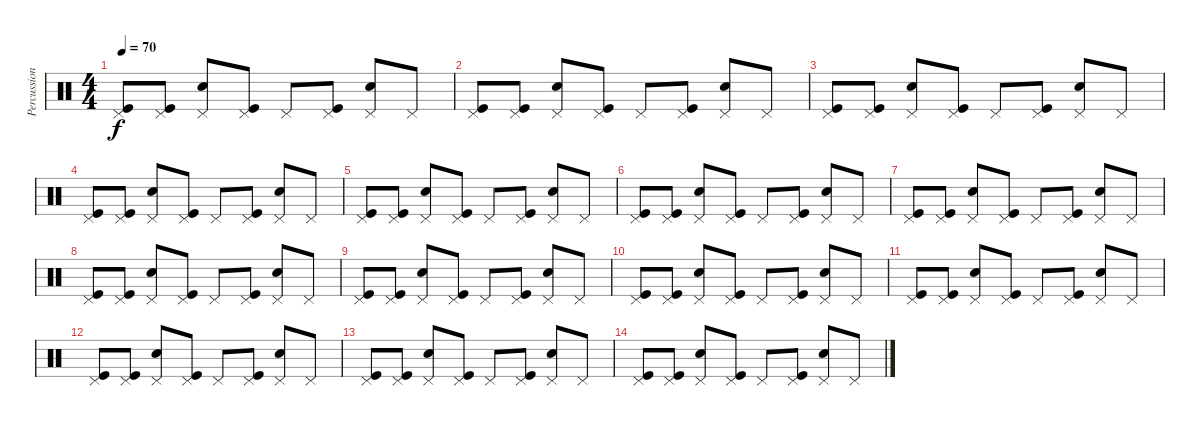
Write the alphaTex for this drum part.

\track ("Percussion" "Percussion") {instrument percussion}
\staff {score}
\articulation defaults
\ts (4 4)
\tempo 70
\clef neutral
\ks c
("Pedal Hi-Hat (hit)" "Kick (hit)").8{dy f} ("Pedal Hi-Hat (hit)" "Kick (hit)").8 ("Pedal Hi-Hat (hit)" "Snare (hit) 2").8 ("Pedal Hi-Hat (hit)" "Kick (hit)").8 "Pedal Hi-Hat (hit)".8 ("Pedal Hi-Hat (hit)" "Kick (hit)").8 ("Pedal Hi-Hat (hit)" "Snare (hit) 2").8 "Pedal Hi-Hat (hit)".8 |
("Pedal Hi-Hat (hit)" "Kick (hit)").8 ("Pedal Hi-Hat (hit)" "Kick (hit)").8 ("Pedal Hi-Hat (hit)" "Snare (hit) 2").8 ("Pedal Hi-Hat (hit)" "Kick (hit)").8 "Pedal Hi-Hat (hit)".8 ("Pedal Hi-Hat (hit)" "Kick (hit)").8 ("Pedal Hi-Hat (hit)" "Snare (hit) 2").8 "Pedal Hi-Hat (hit)".8 |
("Pedal Hi-Hat (hit)" "Kick (hit)").8 ("Pedal Hi-Hat (hit)" "Kick (hit)").8 ("Pedal Hi-Hat (hit)" "Snare (hit) 2").8 ("Pedal Hi-Hat (hit)" "Kick (hit)").8 "Pedal Hi-Hat (hit)".8 ("Pedal Hi-Hat (hit)" "Kick (hit)").8 ("Pedal Hi-Hat (hit)" "Snare (hit) 2").8 "Pedal Hi-Hat (hit)".8 |
("Pedal Hi-Hat (hit)" "Kick (hit)").8 ("Pedal Hi-Hat (hit)" "Kick (hit)").8 ("Pedal Hi-Hat (hit)" "Snare (hit) 2").8 ("Pedal Hi-Hat (hit)" "Kick (hit)").8 "Pedal Hi-Hat (hit)".8 ("Pedal Hi-Hat (hit)" "Kick (hit)").8 ("Pedal Hi-Hat (hit)" "Snare (hit) 2").8 "Pedal Hi-Hat (hit)".8 |
("Pedal Hi-Hat (hit)" "Kick (hit)").8 ("Pedal Hi-Hat (hit)" "Kick (hit)").8 ("Pedal Hi-Hat (hit)" "Snare (hit) 2").8 ("Pedal Hi-Hat (hit)" "Kick (hit)").8 "Pedal Hi-Hat (hit)".8 ("Pedal Hi-Hat (hit)" "Kick (hit)").8 ("Pedal Hi-Hat (hit)" "Snare (hit) 2").8 "Pedal Hi-Hat (hit)".8 |
("Pedal Hi-Hat (hit)" "Kick (hit)").8 ("Pedal Hi-Hat (hit)" "Kick (hit)").8 ("Pedal Hi-Hat (hit)" "Snare (hit) 2").8 ("Pedal Hi-Hat (hit)" "Kick (hit)").8 "Pedal Hi-Hat (hit)".8 ("Pedal Hi-Hat (hit)" "Kick (hit)").8 ("Pedal Hi-Hat (hit)" "Snare (hit) 2").8 "Pedal Hi-Hat (hit)".8 |
("Pedal Hi-Hat (hit)" "Kick (hit)").8 ("Pedal Hi-Hat (hit)" "Kick (hit)").8 ("Pedal Hi-Hat (hit)" "Snare (hit) 2").8{txt ""} ("Pedal Hi-Hat (hit)" "Kick (hit)").8 "Pedal Hi-Hat (hit)".8 ("Pedal Hi-Hat (hit)" "Kick (hit)").8 ("Pedal Hi-Hat (hit)" "Snare (hit) 2").8 "Pedal Hi-Hat (hit)".8 |
("Pedal Hi-Hat (hit)" "Kick (hit)").8 ("Pedal Hi-Hat (hit)" "Kick (hit)").8 ("Pedal Hi-Hat (hit)" "Snare (hit) 2").8 ("Pedal Hi-Hat (hit)" "Kick (hit)").8 "Pedal Hi-Hat (hit)".8 ("Pedal Hi-Hat (hit)" "Kick (hit)").8 ("Pedal Hi-Hat (hit)" "Snare (hit) 2").8 "Pedal Hi-Hat (hit)".8 |
("Pedal Hi-Hat (hit)" "Kick (hit)").8 ("Pedal Hi-Hat (hit)" "Kick (hit)").8 ("Pedal Hi-Hat (hit)" "Snare (hit) 2").8 ("Pedal Hi-Hat (hit)" "Kick (hit)").8 "Pedal Hi-Hat (hit)".8 ("Pedal Hi-Hat (hit)" "Kick (hit)").8 ("Pedal Hi-Hat (hit)" "Snare (hit) 2").8 "Pedal Hi-Hat (hit)".8 |
("Pedal Hi-Hat (hit)" "Kick (hit)").8 ("Pedal Hi-Hat (hit)" "Kick (hit)").8 ("Pedal Hi-Hat (hit)" "Snare (hit) 2").8 ("Pedal Hi-Hat (hit)" "Kick (hit)").8 "Pedal Hi-Hat (hit)".8 ("Pedal Hi-Hat (hit)" "Kick (hit)").8 ("Pedal Hi-Hat (hit)" "Snare (hit) 2").8 "Pedal Hi-Hat (hit)".8 |
("Pedal Hi-Hat (hit)" "Kick (hit)").8 ("Pedal Hi-Hat (hit)" "Kick (hit)").8 ("Pedal Hi-Hat (hit)" "Snare (hit) 2").8 ("Pedal Hi-Hat (hit)" "Kick (hit)").8 "Pedal Hi-Hat (hit)".8 ("Pedal Hi-Hat (hit)" "Kick (hit)").8 ("Pedal Hi-Hat (hit)" "Snare (hit) 2").8 "Pedal Hi-Hat (hit)".8 |
("Pedal Hi-Hat (hit)" "Kick (hit)").8 ("Pedal Hi-Hat (hit)" "Kick (hit)").8 ("Pedal Hi-Hat (hit)" "Snare (hit) 2").8 ("Pedal Hi-Hat (hit)" "Kick (hit)").8 "Pedal Hi-Hat (hit)".8 ("Pedal Hi-Hat (hit)" "Kick (hit)").8 ("Pedal Hi-Hat (hit)" "Snare (hit) 2").8 "Pedal Hi-Hat (hit)".8 |
("Pedal Hi-Hat (hit)" "Kick (hit)").8 ("Pedal Hi-Hat (hit)" "Kick (hit)").8 ("Pedal Hi-Hat (hit)" "Snare (hit) 2").8 ("Pedal Hi-Hat (hit)" "Kick (hit)").8 "Pedal Hi-Hat (hit)".8 ("Pedal Hi-Hat (hit)" "Kick (hit)").8 ("Pedal Hi-Hat (hit)" "Snare (hit) 2").8 "Pedal Hi-Hat (hit)".8 |
("Pedal Hi-Hat (hit)" "Kick (hit)").8 ("Pedal Hi-Hat (hit)" "Kick (hit)").8 ("Pedal Hi-Hat (hit)" "Snare (hit) 2").8 ("Pedal Hi-Hat (hit)" "Kick (hit)").8 "Pedal Hi-Hat (hit)".8 ("Pedal Hi-Hat (hit)" "Kick (hit)").8 ("Pedal Hi-Hat (hit)" "Snare (hit) 2").8 "Pedal Hi-Hat (hit)".8
